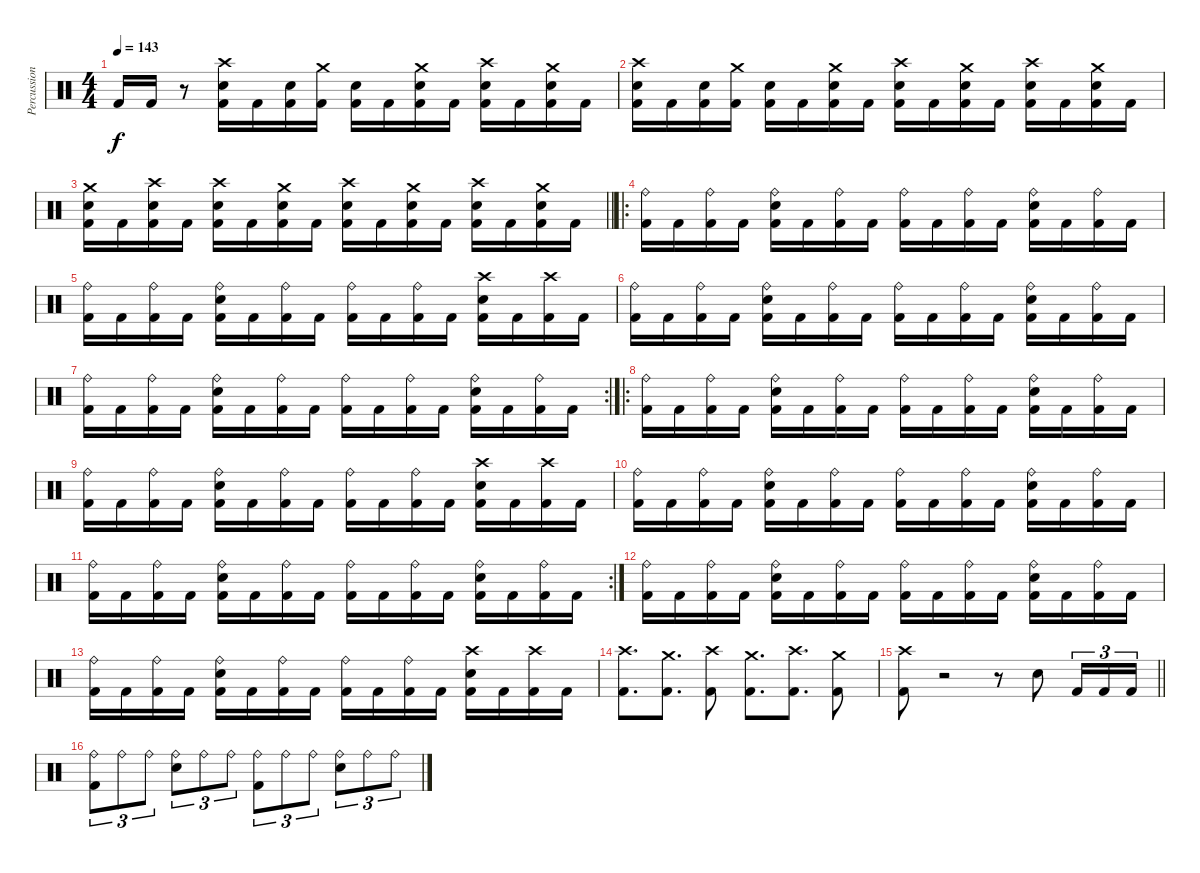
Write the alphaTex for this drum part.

\track ("Percussion" "Percussion") {instrument percussion}
\staff {score}
\articulation defaults
\ts (4 4)
\tempo 143
\clef neutral
\ks c "Kick (hit) 2".16{dy f} "Kick (hit) 2".16
r.8 ("Crash high (hit)" "Snare (hit) 2" "Kick (hit) 2").16 "Kick (hit) 2".16 ("Snare (hit) 2" "Kick (hit) 2").16 ("Crash medium (hit)" "Kick (hit) 2").16 ("Snare (hit) 2" "Kick (hit) 2").16 "Kick (hit) 2".16 ("Crash medium (hit)" "Snare (hit) 2" "Kick (hit) 2").16 "Kick (hit) 2".16 ("Crash high (hit)" "Snare (hit) 2" "Kick (hit) 2").16 "Kick (hit) 2".16 ("Crash medium (hit)" "Snare (hit) 2" "Kick (hit) 2").16 "Kick (hit) 2".16 |
("Crash high (hit)" "Snare (hit) 2" "Kick (hit) 2").16 "Kick (hit) 2".16 ("Snare (hit) 2" "Kick (hit) 2").16 ("Crash medium (hit)" "Kick (hit) 2").16 ("Snare (hit) 2" "Kick (hit) 2").16 "Kick (hit) 2".16 ("Crash medium (hit)" "Snare (hit) 2" "Kick (hit) 2").16 "Kick (hit) 2".16 ("Crash high (hit)" "Snare (hit) 2" "Kick (hit) 2").16 "Kick (hit) 2".16 ("Crash medium (hit)" "Snare (hit) 2" "Kick (hit) 2").16 "Kick (hit) 2".16 ("Crash high (hit)" "Snare (hit) 2" "Kick (hit) 2").16 "Kick (hit) 2".16 ("Crash medium (hit)" "Snare (hit) 2" "Kick (hit) 2").16 "Kick (hit) 2".16 |
\barLineRight lightlight
("Crash medium (hit)" "Snare (hit) 2" "Kick (hit) 2").16 "Kick (hit) 2".16 ("Crash high (hit)" "Snare (hit) 2" "Kick (hit) 2").16 "Kick (hit) 2".16 ("Crash high (hit)" "Snare (hit) 2" "Kick (hit) 2").16 "Kick (hit) 2".16 ("Crash medium (hit)" "Snare (hit) 2" "Kick (hit) 2").16 "Kick (hit) 2".16 ("Crash high (hit)" "Snare (hit) 2" "Kick (hit) 2").16 "Kick (hit) 2".16 ("Crash medium (hit)" "Snare (hit) 2" "Kick (hit) 2").16 "Kick (hit) 2".16 ("Crash high (hit)" "Snare (hit) 2" "Kick (hit) 2").16 "Kick (hit) 2".16 ("Crash medium (hit)" "Snare (hit) 2" "Kick (hit) 2").16 "Kick (hit) 2".16 |
\ro
\section ("" "")
("Ride (bell)" "Kick (hit) 2").16 "Kick (hit) 2".16 ("Ride (bell)" "Kick (hit) 2").16 "Kick (hit) 2".16 ("Ride (bell)" "Snare (hit) 2" "Kick (hit) 2").16 "Kick (hit) 2".16 ("Ride (bell)" "Kick (hit) 2").16 "Kick (hit) 2".16 ("Ride (bell)" "Kick (hit) 2").16 "Kick (hit) 2".16 ("Ride (bell)" "Kick (hit) 2").16 "Kick (hit) 2".16 ("Ride (bell)" "Snare (hit) 2" "Kick (hit) 2").16 "Kick (hit) 2".16 ("Ride (bell)" "Kick (hit) 2").16 "Kick (hit) 2".16 |
("Ride (bell)" "Kick (hit) 2").16 "Kick (hit) 2".16 ("Ride (bell)" "Kick (hit) 2").16 "Kick (hit) 2".16 ("Ride (bell)" "Snare (hit) 2" "Kick (hit) 2").16 "Kick (hit) 2".16 ("Ride (bell)" "Kick (hit) 2").16 "Kick (hit) 2".16 ("Ride (bell)" "Kick (hit) 2").16 "Kick (hit) 2".16 ("Ride (bell)" "Kick (hit) 2").16 "Kick (hit) 2".16 ("Crash high (hit)" "Snare (hit) 2" "Kick (hit) 2").16 "Kick (hit) 2".16 ("Crash high (hit)" "Kick (hit) 2").16 "Kick (hit) 2".16 |
("Ride (bell)" "Kick (hit) 2").16 "Kick (hit) 2".16 ("Ride (bell)" "Kick (hit) 2").16 "Kick (hit) 2".16 ("Ride (bell)" "Snare (hit) 2" "Kick (hit) 2").16 "Kick (hit) 2".16 ("Ride (bell)" "Kick (hit) 2").16 "Kick (hit) 2".16 ("Ride (bell)" "Kick (hit) 2").16 "Kick (hit) 2".16 ("Ride (bell)" "Kick (hit) 2").16 "Kick (hit) 2".16 ("Ride (bell)" "Snare (hit) 2" "Kick (hit) 2").16 "Kick (hit) 2".16 ("Ride (bell)" "Kick (hit) 2").16 "Kick (hit) 2".16 |
\rc 2
("Ride (bell)" "Kick (hit) 2").16 "Kick (hit) 2".16 ("Ride (bell)" "Kick (hit) 2").16 "Kick (hit) 2".16 ("Ride (bell)" "Snare (hit) 2" "Kick (hit) 2").16 "Kick (hit) 2".16 ("Ride (bell)" "Kick (hit) 2").16 "Kick (hit) 2".16 ("Ride (bell)" "Kick (hit) 2").16 "Kick (hit) 2".16 ("Ride (bell)" "Kick (hit) 2").16 "Kick (hit) 2".16 ("Ride (bell)" "Snare (hit) 2" "Kick (hit) 2").16 "Kick (hit) 2".16 ("Ride (bell)" "Kick (hit) 2").16 "Kick (hit) 2".16 |
\ro
("Ride (bell)" "Kick (hit) 2").16 "Kick (hit) 2".16 ("Ride (bell)" "Kick (hit) 2").16 "Kick (hit) 2".16 ("Ride (bell)" "Snare (hit) 2" "Kick (hit) 2").16 "Kick (hit) 2".16 ("Ride (bell)" "Kick (hit) 2").16 "Kick (hit) 2".16 ("Ride (bell)" "Kick (hit) 2").16 "Kick (hit) 2".16 ("Ride (bell)" "Kick (hit) 2").16 "Kick (hit) 2".16 ("Ride (bell)" "Snare (hit) 2" "Kick (hit) 2").16 "Kick (hit) 2".16 ("Ride (bell)" "Kick (hit) 2").16 "Kick (hit) 2".16 |
("Ride (bell)" "Kick (hit) 2").16 "Kick (hit) 2".16 ("Ride (bell)" "Kick (hit) 2").16 "Kick (hit) 2".16 ("Ride (bell)" "Snare (hit) 2" "Kick (hit) 2").16 "Kick (hit) 2".16 ("Ride (bell)" "Kick (hit) 2").16 "Kick (hit) 2".16 ("Ride (bell)" "Kick (hit) 2").16 "Kick (hit) 2".16 ("Ride (bell)" "Kick (hit) 2").16 "Kick (hit) 2".16 ("Crash high (hit)" "Snare (hit) 2" "Kick (hit) 2").16 "Kick (hit) 2".16 ("Crash high (hit)" "Kick (hit) 2").16 "Kick (hit) 2".16 |
("Ride (bell)" "Kick (hit) 2").16 "Kick (hit) 2".16 ("Ride (bell)" "Kick (hit) 2").16 "Kick (hit) 2".16 ("Ride (bell)" "Snare (hit) 2" "Kick (hit) 2").16 "Kick (hit) 2".16 ("Ride (bell)" "Kick (hit) 2").16 "Kick (hit) 2".16 ("Ride (bell)" "Kick (hit) 2").16 "Kick (hit) 2".16 ("Ride (bell)" "Kick (hit) 2").16 "Kick (hit) 2".16 ("Ride (bell)" "Snare (hit) 2" "Kick (hit) 2").16 "Kick (hit) 2".16 ("Ride (bell)" "Kick (hit) 2").16 "Kick (hit) 2".16 |
\rc 2
("Ride (bell)" "Kick (hit) 2").16 "Kick (hit) 2".16 ("Ride (bell)" "Kick (hit) 2").16 "Kick (hit) 2".16 ("Ride (bell)" "Snare (hit) 2" "Kick (hit) 2").16 "Kick (hit) 2".16 ("Ride (bell)" "Kick (hit) 2").16 "Kick (hit) 2".16 ("Ride (bell)" "Kick (hit) 2").16 "Kick (hit) 2".16 ("Ride (bell)" "Kick (hit) 2").16 "Kick (hit) 2".16 ("Ride (bell)" "Snare (hit) 2" "Kick (hit) 2").16 "Kick (hit) 2".16 ("Ride (bell)" "Kick (hit) 2").16 "Kick (hit) 2".16 |
("Ride (bell)" "Kick (hit) 2").16 "Kick (hit) 2".16 ("Ride (bell)" "Kick (hit) 2").16 "Kick (hit) 2".16 ("Ride (bell)" "Snare (hit) 2" "Kick (hit) 2").16 "Kick (hit) 2".16 ("Ride (bell)" "Kick (hit) 2").16 "Kick (hit) 2".16 ("Ride (bell)" "Kick (hit) 2").16 "Kick (hit) 2".16 ("Ride (bell)" "Kick (hit) 2").16 "Kick (hit) 2".16 ("Ride (bell)" "Snare (hit) 2" "Kick (hit) 2").16 "Kick (hit) 2".16 ("Ride (bell)" "Kick (hit) 2").16 "Kick (hit) 2".16 |
("Ride (bell)" "Kick (hit) 2").16 "Kick (hit) 2".16 ("Ride (bell)" "Kick (hit) 2").16 "Kick (hit) 2".16 ("Ride (bell)" "Snare (hit) 2" "Kick (hit) 2").16 "Kick (hit) 2".16 ("Ride (bell)" "Kick (hit) 2").16 "Kick (hit) 2".16 ("Ride (bell)" "Kick (hit) 2").16 "Kick (hit) 2".16 ("Ride (bell)" "Kick (hit) 2").16 "Kick (hit) 2".16 ("Crash high (hit)" "Snare (hit) 2" "Kick (hit) 2").16 "Kick (hit) 2".16 ("Crash high (hit)" "Kick (hit) 2").16 "Kick (hit) 2".16 |
("Kick (hit) 2" "Crash high (hit)").8{d} ("Kick (hit) 2" "Crash medium (hit)").8{d} ("Kick (hit) 2" "Crash high (hit)").8 ("Kick (hit) 2" "Crash medium (hit)").8{d} ("Kick (hit) 2" "Crash high (hit)").8{d} ("Kick (hit) 2" "Crash medium (hit)").8 |
\barLineRight lightlight
("Crash high (hit)" "Kick (hit) 2").8 r.2 r.8 "Snare (hit) 2".8 "Kick (hit) 2".16{tu (3 2)} "Kick (hit) 2".16{tu (3 2)} "Kick (hit) 2".16{tu (3 2)} |
\section ("" "")
("Ride (bell)" "Kick (hit) 2").8{tu (3 2)} "Ride (bell)".8{tu (3 2)} "Ride (bell)".8{tu (3 2)} ("Ride (bell)" "Electric Snare (hit)").8{tu (3 2)} "Ride (bell)".8{tu (3 2)} "Ride (bell)".8{tu (3 2)} ("Ride (bell)" "Kick (hit) 2").8{tu (3 2)} "Ride (bell)".8{tu (3 2)} "Ride (bell)".8{tu (3 2)} ("Ride (bell)" "Electric Snare (hit)").8{tu (3 2)} "Ride (bell)".8{tu (3 2)} "Ride (bell)".8{tu (3 2)}
